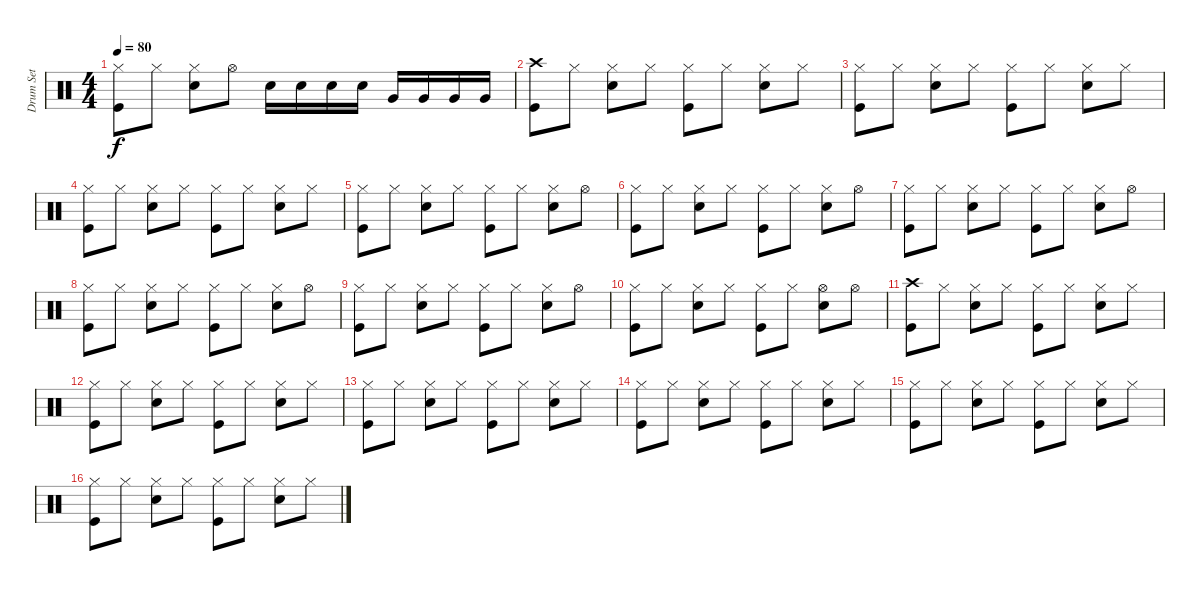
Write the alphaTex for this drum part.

\track ("Drum Set" "Drum Set") {instrument percussion}
\staff {score}
\articulation defaults
\ts (4 4)
\tempo 80
\clef neutral
\ks c
("Hi-Hat (closed)" "Kick (hit)").8{dy f} "Hi-Hat (closed)".8 ("Hi-Hat (closed)" "Electric Snare (hit)").8 "Hi-Hat (open)".8 "Electric Snare (hit)".16 "Electric Snare (hit)".16 "Electric Snare (hit)".16 "Electric Snare (hit)".16 "Very Low Tom (hit)".16 "Very Low Tom (hit)".16 "Very Low Tom (hit)".16 "Very Low Tom (hit)".16 |
("Crash high (hit)" "Kick (hit)").8 "Hi-Hat (closed)".8 ("Hi-Hat (closed)" "Electric Snare (hit)").8 "Hi-Hat (closed)".8 ("Hi-Hat (closed)" "Kick (hit)").8 "Hi-Hat (closed)".8 ("Hi-Hat (closed)" "Electric Snare (hit)").8 "Hi-Hat (closed)".8 |
("Hi-Hat (closed)" "Kick (hit)").8 "Hi-Hat (closed)".8 ("Hi-Hat (closed)" "Electric Snare (hit)").8 "Hi-Hat (closed)".8 ("Hi-Hat (closed)" "Kick (hit)").8 "Hi-Hat (closed)".8 ("Hi-Hat (closed)" "Electric Snare (hit)").8 "Hi-Hat (closed)".8 |
("Hi-Hat (closed)" "Kick (hit)").8 "Hi-Hat (closed)".8 ("Hi-Hat (closed)" "Electric Snare (hit)").8 "Hi-Hat (closed)".8 ("Hi-Hat (closed)" "Kick (hit)").8 "Hi-Hat (closed)".8 ("Hi-Hat (closed)" "Electric Snare (hit)").8 "Hi-Hat (closed)".8 |
("Hi-Hat (closed)" "Kick (hit)").8 "Hi-Hat (closed)".8 ("Hi-Hat (closed)" "Electric Snare (hit)").8 "Hi-Hat (closed)".8 ("Hi-Hat (closed)" "Kick (hit)").8 "Hi-Hat (closed)".8 ("Hi-Hat (closed)" "Electric Snare (hit)").8 "Hi-Hat (open)".8 |
("Hi-Hat (closed)" "Kick (hit)").8 "Hi-Hat (closed)".8 ("Hi-Hat (closed)" "Electric Snare (hit)").8 "Hi-Hat (closed)".8 ("Hi-Hat (closed)" "Kick (hit)").8 "Hi-Hat (closed)".8 ("Hi-Hat (closed)" "Electric Snare (hit)").8 "Hi-Hat (open)".8 |
("Hi-Hat (closed)" "Kick (hit)").8 "Hi-Hat (closed)".8 ("Hi-Hat (closed)" "Electric Snare (hit)").8 "Hi-Hat (closed)".8 ("Hi-Hat (closed)" "Kick (hit)").8 "Hi-Hat (closed)".8 ("Hi-Hat (closed)" "Electric Snare (hit)").8 "Hi-Hat (open)".8 |
("Hi-Hat (closed)" "Kick (hit)").8 "Hi-Hat (closed)".8 ("Hi-Hat (closed)" "Electric Snare (hit)").8 "Hi-Hat (closed)".8 ("Hi-Hat (closed)" "Kick (hit)").8 "Hi-Hat (closed)".8 ("Hi-Hat (closed)" "Electric Snare (hit)").8 "Hi-Hat (open)".8 |
("Hi-Hat (closed)" "Kick (hit)").8 "Hi-Hat (closed)".8 ("Hi-Hat (closed)" "Electric Snare (hit)").8 "Hi-Hat (closed)".8 ("Hi-Hat (closed)" "Kick (hit)").8 "Hi-Hat (closed)".8 ("Hi-Hat (closed)" "Electric Snare (hit)").8 "Hi-Hat (open)".8 |
("Hi-Hat (closed)" "Kick (hit)").8 "Hi-Hat (closed)".8 ("Hi-Hat (closed)" "Electric Snare (hit)").8 "Hi-Hat (closed)".8 ("Hi-Hat (closed)" "Kick (hit)").8 "Hi-Hat (closed)".8 ("Hi-Hat (open)" "Electric Snare (hit)").8 "Hi-Hat (open)".8 |
("Crash high (hit)" "Kick (hit)").8 "Hi-Hat (closed)".8 ("Hi-Hat (closed)" "Electric Snare (hit)").8 "Hi-Hat (closed)".8 ("Hi-Hat (closed)" "Kick (hit)").8 "Hi-Hat (closed)".8 ("Hi-Hat (closed)" "Electric Snare (hit)").8 "Hi-Hat (closed)".8 |
("Hi-Hat (closed)" "Kick (hit)").8 "Hi-Hat (closed)".8 ("Hi-Hat (closed)" "Electric Snare (hit)").8 "Hi-Hat (closed)".8 ("Hi-Hat (closed)" "Kick (hit)").8 "Hi-Hat (closed)".8 ("Hi-Hat (closed)" "Electric Snare (hit)").8 "Hi-Hat (closed)".8 |
("Hi-Hat (closed)" "Kick (hit)").8 "Hi-Hat (closed)".8 ("Hi-Hat (closed)" "Electric Snare (hit)").8 "Hi-Hat (closed)".8 ("Hi-Hat (closed)" "Kick (hit)").8 "Hi-Hat (closed)".8 ("Hi-Hat (closed)" "Electric Snare (hit)").8 "Hi-Hat (closed)".8 |
("Hi-Hat (closed)" "Kick (hit)").8 "Hi-Hat (closed)".8 ("Hi-Hat (closed)" "Electric Snare (hit)").8 "Hi-Hat (closed)".8 ("Hi-Hat (closed)" "Kick (hit)").8 "Hi-Hat (closed)".8 ("Hi-Hat (closed)" "Electric Snare (hit)").8 "Hi-Hat (closed)".8 |
("Hi-Hat (closed)" "Kick (hit)").8 "Hi-Hat (closed)".8 ("Hi-Hat (closed)" "Electric Snare (hit)").8 "Hi-Hat (closed)".8 ("Hi-Hat (closed)" "Kick (hit)").8 "Hi-Hat (closed)".8 ("Hi-Hat (closed)" "Electric Snare (hit)").8 "Hi-Hat (closed)".8 |
("Hi-Hat (closed)" "Kick (hit)").8 "Hi-Hat (closed)".8 ("Hi-Hat (closed)" "Electric Snare (hit)").8 "Hi-Hat (closed)".8 ("Hi-Hat (closed)" "Kick (hit)").8 "Hi-Hat (closed)".8 ("Hi-Hat (closed)" "Electric Snare (hit)").8 "Hi-Hat (closed)".8
